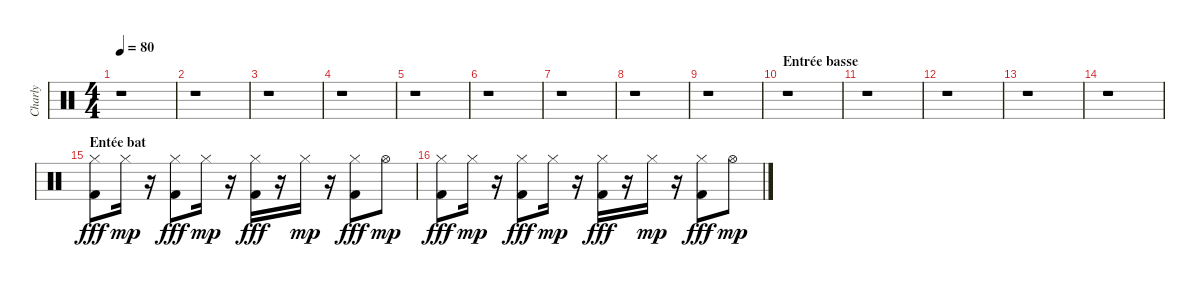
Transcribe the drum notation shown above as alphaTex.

\track ("Charly" "Charly") {instrument percussion}
\staff {score}
\articulation defaults
\ts (4 4)
\tempo 80
\clef neutral
\ks c
r.1{dy fff} |
r.1 |
r.1 |
r.1 |
r.1 |
r.1 |
r.1 |
r.1 |
r.1 |
\section ("" "Entrée basse")
r.1 |
r.1 |
r.1 |
r.1 |
r.1 |
\section ("" "Entée bat")
("Hi-Hat (closed)" "Kick (hit) 2").8 "Hi-Hat (closed)".16{dy mp} r.16 ("Hi-Hat (closed)" "Kick (hit) 2").8{dy fff} "Hi-Hat (closed)".16{dy mp} r.16 ("Hi-Hat (closed)" "Kick (hit) 2").16{dy fff} r.16 "Hi-Hat (closed)".16{dy mp} r.16 ("Hi-Hat (closed)" "Kick (hit) 2").8{dy fff} "Hi-Hat (open)".8{dy mp} |
("Hi-Hat (closed)" "Kick (hit) 2").8{dy fff} "Hi-Hat (closed)".16{dy mp} r.16 ("Hi-Hat (closed)" "Kick (hit) 2").8{dy fff} "Hi-Hat (closed)".16{dy mp} r.16 ("Hi-Hat (closed)" "Kick (hit) 2").16{dy fff} r.16 "Hi-Hat (closed)".16{dy mp} r.16 ("Hi-Hat (closed)" "Kick (hit) 2").8{dy fff} "Hi-Hat (open)".8{dy mp}
